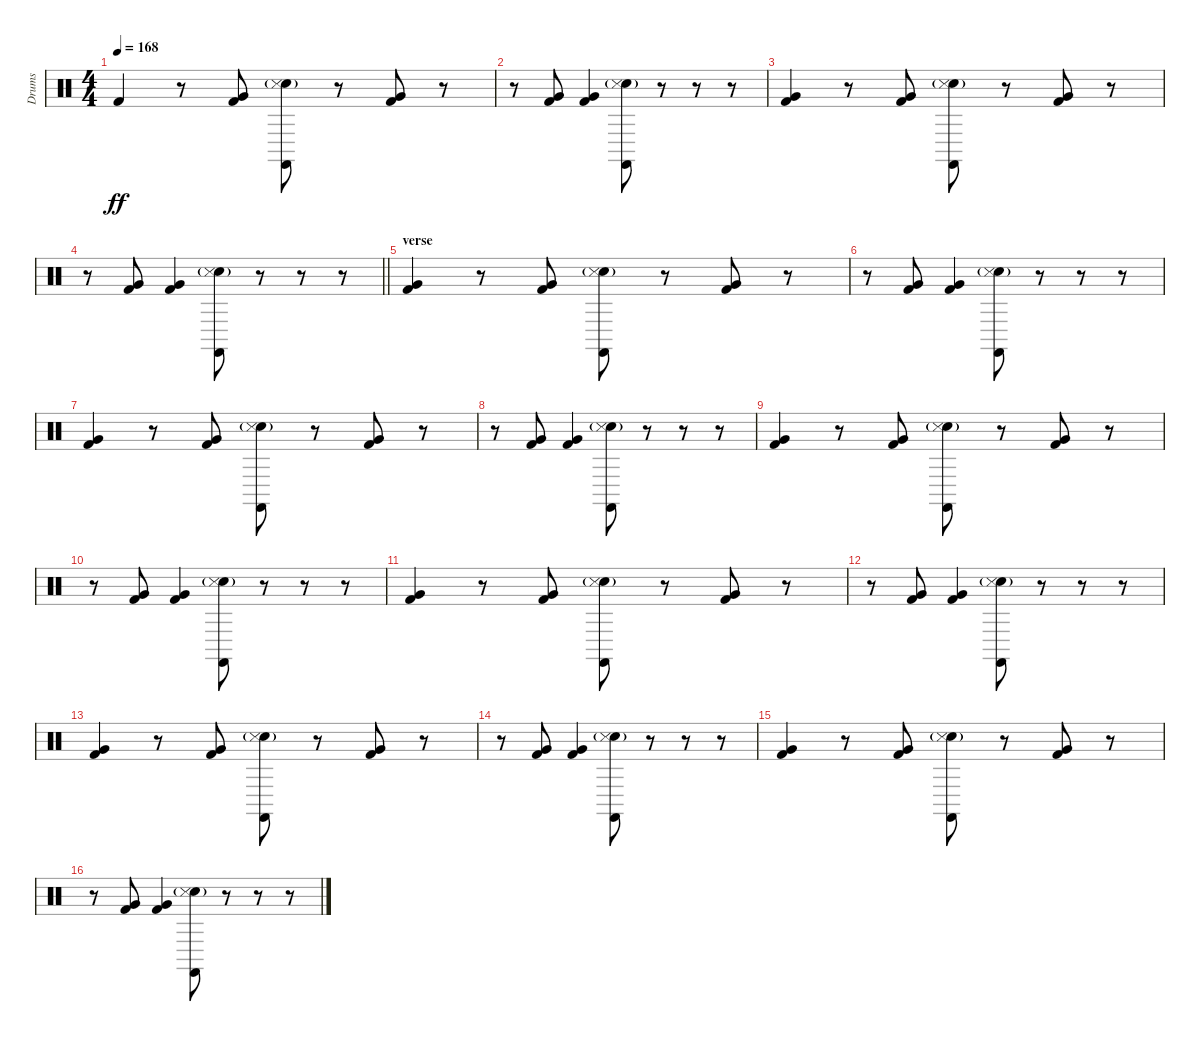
\track ("Drums" "Drums") {instrument percussion}
\staff {score}
\articulation defaults
\ts (4 4)
\tempo 168
\clef neutral
\ks c "Kick (hit) 2".4{dy ff}
r.8 ("Very Low Tom (hit)" "Kick (hit) 2").8 ("Hand Clap (hit)"{g} "Castanets (hit)" "Snare (side stick) 3").8 r.8 ("Very Low Tom (hit)" "Kick (hit) 2").8 r.8 |
r.8 ("Very Low Tom (hit)" "Kick (hit) 2").8 ("Very Low Tom (hit)" "Kick (hit) 2").4 ("Hand Clap (hit)"{g} "Castanets (hit)" "Snare (side stick) 3").8 r.8 r.8 r.8 |
("Very Low Tom (hit)" "Kick (hit) 2").4 r.8 ("Very Low Tom (hit)" "Kick (hit) 2").8 ("Hand Clap (hit)"{g} "Castanets (hit)" "Snare (side stick) 3").8 r.8 ("Very Low Tom (hit)" "Kick (hit) 2").8 r.8 |
\barLineRight lightlight
r.8 ("Very Low Tom (hit)" "Kick (hit) 2").8 ("Very Low Tom (hit)" "Kick (hit) 2").4 ("Hand Clap (hit)"{g} "Castanets (hit)" "Snare (side stick) 3").8 r.8 r.8 r.8 |
\section ("" "verse")
("Very Low Tom (hit)" "Kick (hit) 2").4 r.8 ("Very Low Tom (hit)" "Kick (hit) 2").8 ("Hand Clap (hit)"{g} "Castanets (hit)" "Snare (side stick) 3").8 r.8 ("Very Low Tom (hit)" "Kick (hit) 2").8 r.8 |
r.8 ("Very Low Tom (hit)" "Kick (hit) 2").8 ("Very Low Tom (hit)" "Kick (hit) 2").4 ("Hand Clap (hit)"{g} "Castanets (hit)" "Snare (side stick) 3").8 r.8 r.8 r.8 |
("Very Low Tom (hit)" "Kick (hit) 2").4 r.8 ("Very Low Tom (hit)" "Kick (hit) 2").8 ("Hand Clap (hit)"{g} "Castanets (hit)" "Snare (side stick) 3").8 r.8 ("Very Low Tom (hit)" "Kick (hit) 2").8 r.8 |
r.8 ("Very Low Tom (hit)" "Kick (hit) 2").8 ("Very Low Tom (hit)" "Kick (hit) 2").4 ("Hand Clap (hit)"{g} "Castanets (hit)" "Snare (side stick) 3").8 r.8 r.8 r.8 |
("Very Low Tom (hit)" "Kick (hit) 2").4 r.8 ("Very Low Tom (hit)" "Kick (hit) 2").8 ("Hand Clap (hit)"{g} "Castanets (hit)" "Snare (side stick) 3").8 r.8 ("Very Low Tom (hit)" "Kick (hit) 2").8 r.8 |
r.8 ("Very Low Tom (hit)" "Kick (hit) 2").8 ("Very Low Tom (hit)" "Kick (hit) 2").4 ("Hand Clap (hit)"{g} "Castanets (hit)" "Snare (side stick) 3").8 r.8 r.8 r.8 |
("Very Low Tom (hit)" "Kick (hit) 2").4 r.8 ("Very Low Tom (hit)" "Kick (hit) 2").8 ("Hand Clap (hit)"{g} "Castanets (hit)" "Snare (side stick) 3").8 r.8 ("Very Low Tom (hit)" "Kick (hit) 2").8 r.8 |
r.8 ("Very Low Tom (hit)" "Kick (hit) 2").8 ("Very Low Tom (hit)" "Kick (hit) 2").4 ("Hand Clap (hit)"{g} "Castanets (hit)" "Snare (side stick) 3").8 r.8 r.8 r.8 |
("Very Low Tom (hit)" "Kick (hit) 2").4 r.8 ("Very Low Tom (hit)" "Kick (hit) 2").8 ("Hand Clap (hit)"{g} "Castanets (hit)" "Snare (side stick) 3").8 r.8 ("Very Low Tom (hit)" "Kick (hit) 2").8 r.8 |
r.8 ("Very Low Tom (hit)" "Kick (hit) 2").8 ("Very Low Tom (hit)" "Kick (hit) 2").4 ("Hand Clap (hit)"{g} "Castanets (hit)" "Snare (side stick) 3").8 r.8 r.8 r.8 |
("Very Low Tom (hit)" "Kick (hit) 2").4 r.8 ("Very Low Tom (hit)" "Kick (hit) 2").8 ("Hand Clap (hit)"{g} "Castanets (hit)" "Snare (side stick) 3").8 r.8 ("Very Low Tom (hit)" "Kick (hit) 2").8 r.8 |
r.8 ("Very Low Tom (hit)" "Kick (hit) 2").8 ("Very Low Tom (hit)" "Kick (hit) 2").4 ("Hand Clap (hit)"{g} "Castanets (hit)" "Snare (side stick) 3").8 r.8 r.8 r.8
